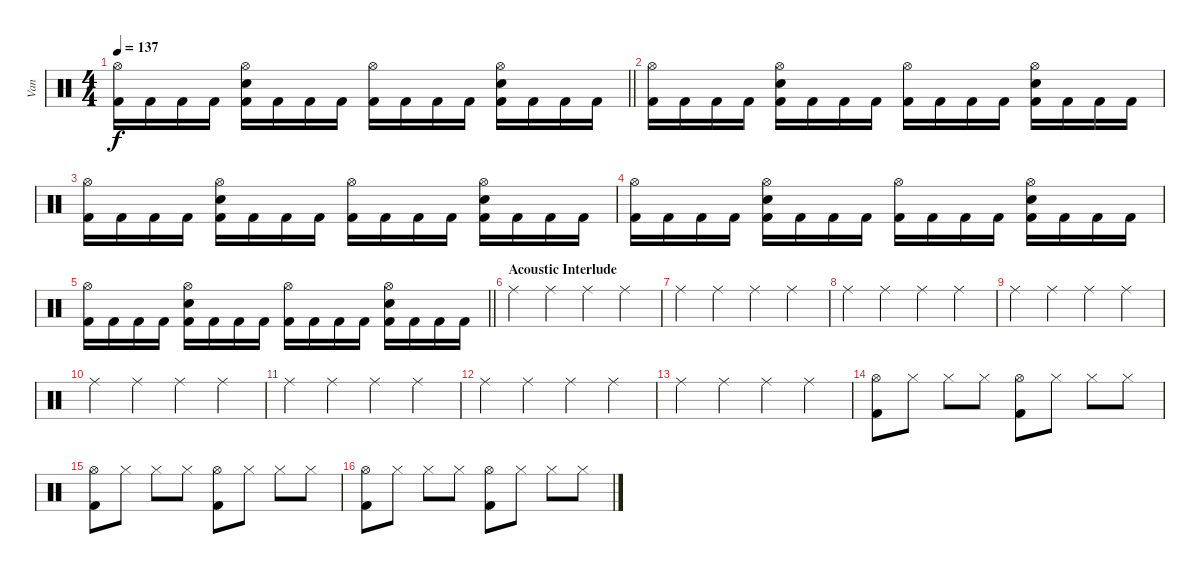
\track ("Van" "Van") {instrument percussion}
\staff {score}
\articulation defaults
\ts (4 4)
\tempo 137
\clef neutral
\barLineRight lightlight
\ks c
("Hi-Hat (open)" "Kick (hit) 2").16{dy f} "Kick (hit) 2".16 "Kick (hit) 2".16 "Kick (hit) 2".16 ("Hi-Hat (open)" "Electric Snare (hit)" "Kick (hit) 2").16 "Kick (hit) 2".16 "Kick (hit) 2".16 "Kick (hit) 2".16 ("Hi-Hat (open)" "Kick (hit) 2").16 "Kick (hit) 2".16 "Kick (hit) 2".16 "Kick (hit) 2".16 ("Hi-Hat (open)" "Electric Snare (hit)" "Kick (hit) 2").16 "Kick (hit) 2".16 "Kick (hit) 2".16 "Kick (hit) 2".16 |
("Hi-Hat (open)" "Kick (hit) 2").16 "Kick (hit) 2".16 "Kick (hit) 2".16 "Kick (hit) 2".16 ("Hi-Hat (open)" "Electric Snare (hit)" "Kick (hit) 2").16 "Kick (hit) 2".16 "Kick (hit) 2".16 "Kick (hit) 2".16 ("Hi-Hat (open)" "Kick (hit) 2").16 "Kick (hit) 2".16 "Kick (hit) 2".16 "Kick (hit) 2".16 ("Hi-Hat (open)" "Electric Snare (hit)" "Kick (hit) 2").16 "Kick (hit) 2".16 "Kick (hit) 2".16 "Kick (hit) 2".16 |
("Hi-Hat (open)" "Kick (hit) 2").16 "Kick (hit) 2".16 "Kick (hit) 2".16 "Kick (hit) 2".16 ("Hi-Hat (open)" "Electric Snare (hit)" "Kick (hit) 2").16 "Kick (hit) 2".16 "Kick (hit) 2".16 "Kick (hit) 2".16 ("Hi-Hat (open)" "Kick (hit) 2").16 "Kick (hit) 2".16 "Kick (hit) 2".16 "Kick (hit) 2".16 ("Hi-Hat (open)" "Electric Snare (hit)" "Kick (hit) 2").16 "Kick (hit) 2".16 "Kick (hit) 2".16 "Kick (hit) 2".16 |
("Hi-Hat (open)" "Kick (hit) 2").16 "Kick (hit) 2".16 "Kick (hit) 2".16 "Kick (hit) 2".16 ("Hi-Hat (open)" "Electric Snare (hit)" "Kick (hit) 2").16 "Kick (hit) 2".16 "Kick (hit) 2".16 "Kick (hit) 2".16 ("Hi-Hat (open)" "Kick (hit) 2").16 "Kick (hit) 2".16 "Kick (hit) 2".16 "Kick (hit) 2".16 ("Hi-Hat (open)" "Electric Snare (hit)" "Kick (hit) 2").16 "Kick (hit) 2".16 "Kick (hit) 2".16 "Kick (hit) 2".16 |
\barLineRight lightlight
("Hi-Hat (open)" "Kick (hit) 2").16 "Kick (hit) 2".16 "Kick (hit) 2".16 "Kick (hit) 2".16 ("Hi-Hat (open)" "Electric Snare (hit)" "Kick (hit) 2").16 "Kick (hit) 2".16 "Kick (hit) 2".16 "Kick (hit) 2".16 ("Hi-Hat (open)" "Kick (hit) 2").16 "Kick (hit) 2".16 "Kick (hit) 2".16 "Kick (hit) 2".16 ("Hi-Hat (open)" "Electric Snare (hit)" "Kick (hit) 2").16 "Kick (hit) 2".16 "Kick (hit) 2".16 "Kick (hit) 2".16 |
\section ("" "Acoustic Interlude")
"Ride (middle)".4 "Ride (middle)".4 "Ride (middle)".4 "Ride (middle)".4 |
"Ride (middle)".4 "Ride (middle)".4 "Ride (middle)".4 "Ride (middle)".4 |
"Ride (middle)".4 "Ride (middle)".4 "Ride (middle)".4 "Ride (middle)".4 |
"Ride (middle)".4 "Ride (middle)".4 "Ride (middle)".4 "Ride (middle)".4 |
"Ride (middle)".4 "Ride (middle)".4 "Ride (middle)".4 "Ride (middle)".4 |
"Ride (middle)".4 "Ride (middle)".4 "Ride (middle)".4 "Ride (middle)".4 |
"Ride (middle)".4 "Ride (middle)".4 "Ride (middle)".4 "Ride (middle)".4 |
"Ride (middle)".4 "Ride (middle)".4 "Ride (middle)".4 "Ride (middle)".4 |
("Hi-Hat (open)" "Kick (hit) 2").8 "Hi-Hat (closed)".8 "Hi-Hat (closed)".8 "Hi-Hat (closed)".8 ("Hi-Hat (open)" "Kick (hit) 2").8 "Hi-Hat (closed)".8 "Hi-Hat (closed)".8 "Hi-Hat (closed)".8 |
("Hi-Hat (open)" "Kick (hit) 2").8 "Hi-Hat (closed)".8 "Hi-Hat (closed)".8 "Hi-Hat (closed)".8 ("Hi-Hat (open)" "Kick (hit) 2").8 "Hi-Hat (closed)".8 "Hi-Hat (closed)".8 "Hi-Hat (closed)".8 |
("Hi-Hat (open)" "Kick (hit) 2").8 "Hi-Hat (closed)".8 "Hi-Hat (closed)".8 "Hi-Hat (closed)".8 ("Hi-Hat (open)" "Kick (hit) 2").8 "Hi-Hat (closed)".8 "Hi-Hat (closed)".8 "Hi-Hat (closed)".8
